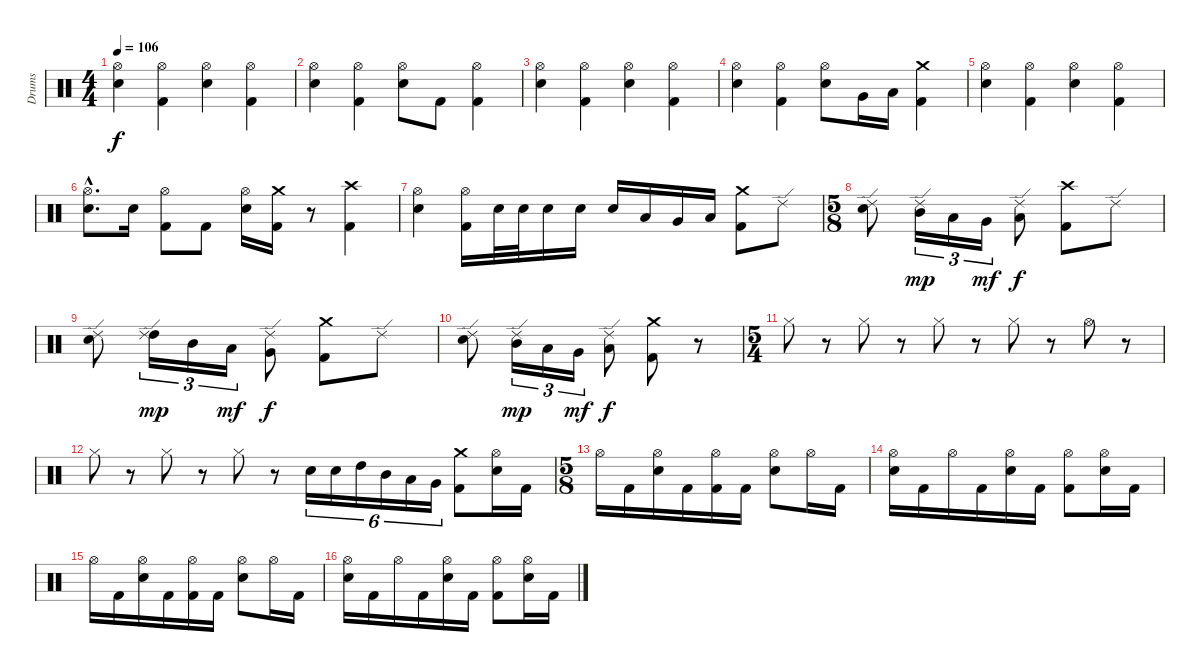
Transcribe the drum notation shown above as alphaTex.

\track ("Drums" "Drums") {instrument percussion}
\staff {score}
\articulation defaults
\ts (4 4)
\tempo 106
\clef neutral
\ks c
("Hi-Hat (open)" "Electric Snare (hit)").4{dy f} ("Hi-Hat (open)" "Kick (hit) 2").4 ("Hi-Hat (open)" "Electric Snare (hit)").4 ("Hi-Hat (open)" "Kick (hit) 2").4 |
("Hi-Hat (open)" "Electric Snare (hit)").4 ("Hi-Hat (open)" "Kick (hit) 2").4 ("Hi-Hat (open)" "Electric Snare (hit)").8 "Kick (hit) 2".8 ("Hi-Hat (open)" "Kick (hit) 2").4 |
("Hi-Hat (open)" "Electric Snare (hit)").4 ("Hi-Hat (open)" "Kick (hit) 2").4 ("Hi-Hat (open)" "Electric Snare (hit)").4 ("Hi-Hat (open)" "Kick (hit) 2").4 |
("Hi-Hat (open)" "Electric Snare (hit)").4 ("Hi-Hat (open)" "Kick (hit) 2").4 ("Hi-Hat (open)" "Electric Snare (hit)").8 "Very Low Tom (hit)".16 "Low Floor Tom (hit)".16 ("Crash medium (hit)" "Kick (hit) 2").4 |
("Hi-Hat (open)" "Electric Snare (hit)").4 ("Hi-Hat (open)" "Kick (hit) 2").4 ("Hi-Hat (open)" "Electric Snare (hit)").4 ("Hi-Hat (open)" "Kick (hit) 2").4 |
("Hi-Hat (open)" "Electric Snare (hit)"{hac}).8{d} "Electric Snare (hit)".16 ("Hi-Hat (open)" "Kick (hit) 2").8 "Kick (hit) 2".8 ("Hi-Hat (open)" "Electric Snare (hit)").16 ("Crash medium (hit)" "Kick (hit) 2").16 r.8 ("Crash high (hit)" "Kick (hit) 2").4 |
("Hi-Hat (open)" "Electric Snare (hit)").4 ("Hi-Hat (open)" "Kick (hit) 2").16 "Electric Snare (hit)".32 "Electric Snare (hit)".32 "Electric Snare (hit)".16 "Electric Snare (hit)".16 "Electric Snare (hit)".16 "Low Tom (hit)".16 "Very Low Tom (hit)".16 "Low Floor Tom (hit)".16 ("Crash medium (hit)" "Kick (hit) 2").8 "Ride (edge) 2".8 |
\ts (5 8)
("Ride (edge) 2" "Electric Snare (hit)").8 ("Ride (edge) 2" "Mid Tom (hit)").16{tu (3 2) dy mp} "Low Tom (hit)".16{tu (3 2)} "Very Low Tom (hit)".16{tu (3 2) dy mf} ("Ride (edge) 2" "Low Floor Tom (hit)").8{dy f} ("Crash high (hit)" "Kick (hit) 2").8 "Ride (edge) 2".8 |
("Ride (edge) 2" "Electric Snare (hit)").8 ("High Tom (hit)" "Ride (edge) 2").16{tu (3 2) dy mp} "Mid Tom (hit)".16{tu (3 2)} "Low Tom (hit)".16{tu (3 2) dy mf} ("Very Low Tom (hit)" "Ride (edge) 2").8{dy f} ("Crash medium (hit)" "Kick (hit) 2").8 "Ride (edge) 2".8 |
("Ride (edge) 2" "Electric Snare (hit)").8 ("Ride (edge) 2" "Mid Tom (hit)").16{tu (3 2) dy mp} "Low Tom (hit)".16{tu (3 2)} "Very Low Tom (hit)".16{tu (3 2) dy mf} ("Ride (edge) 2" "Low Floor Tom (hit)").8{dy f} ("Crash medium (hit)" "Kick (hit) 2").8 r.8 |
\ts (5 4)
"Hi-Hat (closed)".8 r.8 "Hi-Hat (closed)".8 r.8 "Hi-Hat (closed)".8 r.8 "Hi-Hat (closed)".8 r.8 "Hi-Hat (open)".8 r.8 |
"Hi-Hat (closed)".8 r.8 "Hi-Hat (closed)".8 r.8 "Hi-Hat (closed)".8 r.8 "Electric Snare (hit)".16{tu (6 4)} "Electric Snare (hit)".16{tu (6 4)} "High Tom (hit)".16{tu (6 4)} "Mid Tom (hit)".16{tu (6 4)} "Low Tom (hit)".16{tu (6 4)} "Very Low Tom (hit)".16{tu (6 4)} ("Kick (hit) 2" "Crash medium (hit)").8 ("Electric Snare (hit)" "Hi-Hat (open)").16 "Kick (hit) 2".16 |
\ts (5 8)
"Hi-Hat (open)".16 "Kick (hit) 2".16 ("Electric Snare (hit)" "Hi-Hat (open)").16 "Kick (hit) 2".16 ("Kick (hit) 2" "Hi-Hat (open)").16 "Kick (hit) 2".16 ("Electric Snare (hit)" "Hi-Hat (open)").8 "Hi-Hat (open)".16 "Kick (hit) 2".16 |
("Electric Snare (hit)" "Hi-Hat (open)").16 "Kick (hit) 2".16 "Hi-Hat (open)".16 "Kick (hit) 2".16 ("Electric Snare (hit)" "Hi-Hat (open)").16 "Kick (hit) 2".16 ("Kick (hit) 2" "Hi-Hat (open)").8 ("Electric Snare (hit)" "Hi-Hat (open)").16 "Kick (hit) 2".16 |
"Hi-Hat (open)".16 "Kick (hit) 2".16 ("Electric Snare (hit)" "Hi-Hat (open)").16 "Kick (hit) 2".16 ("Kick (hit) 2" "Hi-Hat (open)").16 "Kick (hit) 2".16 ("Electric Snare (hit)" "Hi-Hat (open)").8 "Hi-Hat (open)".16 "Kick (hit) 2".16 |
("Electric Snare (hit)" "Hi-Hat (open)").16 "Kick (hit) 2".16 "Hi-Hat (open)".16 "Kick (hit) 2".16 ("Electric Snare (hit)" "Hi-Hat (open)").16 "Kick (hit) 2".16 ("Kick (hit) 2" "Hi-Hat (open)").8 ("Electric Snare (hit)" "Hi-Hat (open)").16 "Kick (hit) 2".16
